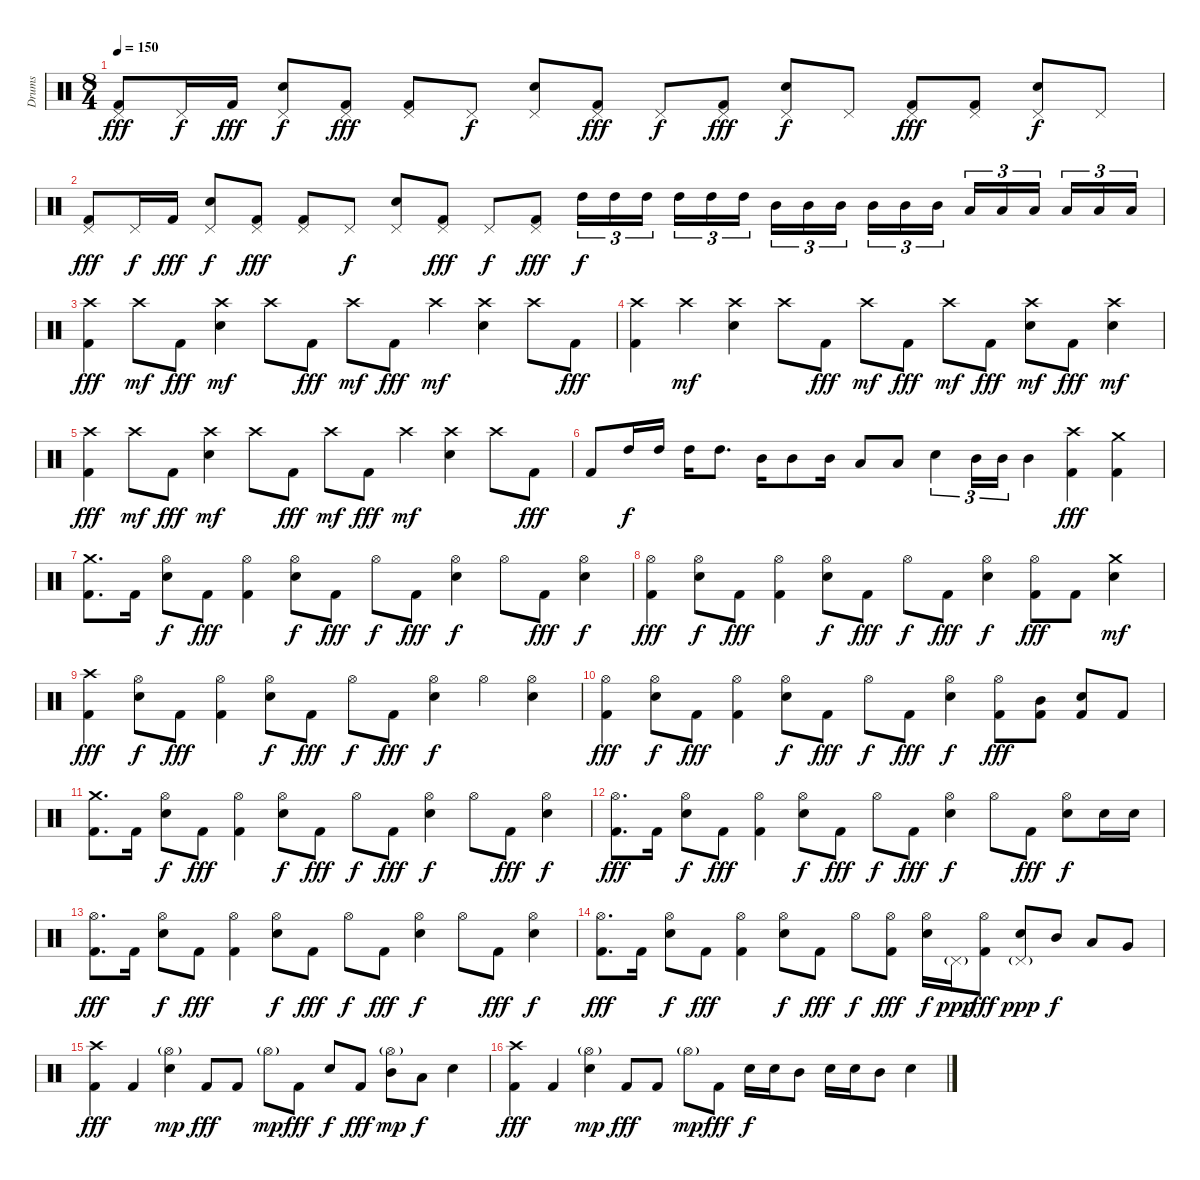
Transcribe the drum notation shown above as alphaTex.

\track ("Drums" "Drums") {instrument percussion}
\staff {score}
\articulation defaults
\ts (8 4)
\tempo 150
\clef neutral
\ks c
("Pedal Hi-Hat (hit)" "Kick (hit) 2").8{dy fff} "Pedal Hi-Hat (hit)".16{dy f} "Kick (hit) 2".16{dy fff} ("Pedal Hi-Hat (hit)" "Snare (hit) 2").8{dy f} ("Pedal Hi-Hat (hit)" "Kick (hit) 2").8{dy fff} ("Pedal Hi-Hat (hit)" "Kick (hit) 2").8 "Pedal Hi-Hat (hit)".8{dy f} ("Pedal Hi-Hat (hit)" "Snare (hit) 2").8 ("Pedal Hi-Hat (hit)" "Kick (hit) 2").8{dy fff} "Pedal Hi-Hat (hit)".8{dy f} ("Pedal Hi-Hat (hit)" "Kick (hit) 2").8{dy fff} ("Pedal Hi-Hat (hit)" "Snare (hit) 2").8{dy f} "Pedal Hi-Hat (hit)".8 ("Pedal Hi-Hat (hit)" "Kick (hit) 2").8{dy fff} ("Pedal Hi-Hat (hit)" "Kick (hit) 2").8 ("Pedal Hi-Hat (hit)" "Snare (hit) 2").8{dy f} "Pedal Hi-Hat (hit)".8 |
("Pedal Hi-Hat (hit)" "Kick (hit) 2").8{dy fff} "Pedal Hi-Hat (hit)".16{dy f} "Kick (hit) 2".16{dy fff} ("Pedal Hi-Hat (hit)" "Snare (hit) 2").8{dy f} ("Pedal Hi-Hat (hit)" "Kick (hit) 2").8{dy fff} ("Pedal Hi-Hat (hit)" "Kick (hit) 2").8 "Pedal Hi-Hat (hit)".8{dy f} ("Pedal Hi-Hat (hit)" "Snare (hit) 2").8 ("Pedal Hi-Hat (hit)" "Kick (hit) 2").8{dy fff} "Pedal Hi-Hat (hit)".8{dy f} ("Pedal Hi-Hat (hit)" "Kick (hit) 2").8{dy fff} "High Tom (hit)".16{tu (3 2) dy f} "High Tom (hit)".16{tu (3 2)} "High Tom (hit)".16{tu (3 2)} "High Tom (hit)".16{tu (3 2)} "High Tom (hit)".16{tu (3 2)} "High Tom (hit)".16{tu (3 2)} "Mid Tom (hit)".16{tu (3 2)} "Mid Tom (hit)".16{tu (3 2)} "Mid Tom (hit)".16{tu (3 2)} "Mid Tom (hit)".16{tu (3 2)} "Mid Tom (hit)".16{tu (3 2)} "Mid Tom (hit)".16{tu (3 2)} "Low Tom (hit)".16{tu (3 2)} "Low Tom (hit)".16{tu (3 2)} "Low Tom (hit)".16{tu (3 2)} "Low Tom (hit)".16{tu (3 2)} "Low Tom (hit)".16{tu (3 2)} "Low Tom (hit)".16{tu (3 2)} |
("Crash high (hit)" "Kick (hit) 2").4{dy fff} "Crash high (hit)".8{dy mf} "Kick (hit) 2".8{dy fff} ("Crash high (hit)" "Snare (hit) 2").4{dy mf} "Crash high (hit)".8 "Kick (hit) 2".8{dy fff} "Crash high (hit)".8{dy mf} "Kick (hit) 2".8{dy fff} "Crash high (hit)".4{dy mf} ("Crash high (hit)" "Snare (hit) 2").4 "Crash high (hit)".8 "Kick (hit) 2".8{dy fff} |
("Crash high (hit)" "Kick (hit) 2").4 "Crash high (hit)".4{dy mf} ("Crash high (hit)" "Snare (hit) 2").4 "Crash high (hit)".8 "Kick (hit) 2".8{dy fff} "Crash high (hit)".8{dy mf} "Kick (hit) 2".8{dy fff} "Crash high (hit)".8{dy mf} "Kick (hit) 2".8{dy fff} ("Crash high (hit)" "Snare (hit) 2").8{dy mf} "Kick (hit) 2".8{dy fff} ("Crash high (hit)" "Snare (hit) 2").4{dy mf} |
("Crash high (hit)" "Kick (hit) 2").4{dy fff} "Crash high (hit)".8{dy mf} "Kick (hit) 2".8{dy fff} ("Crash high (hit)" "Snare (hit) 2").4{dy mf} "Crash high (hit)".8 "Kick (hit) 2".8{dy fff} "Crash high (hit)".8{dy mf} "Kick (hit) 2".8{dy fff} "Crash high (hit)".4{dy mf} ("Crash high (hit)" "Snare (hit) 2").4 "Crash high (hit)".8 "Kick (hit) 2".8{dy fff} |
"Kick (hit) 2".8 "High Tom (hit)".16{dy f} "High Tom (hit)".16 "High Tom (hit)".16 "High Tom (hit)".8{d} "Mid Tom (hit)".16 "Mid Tom (hit)".8 "Mid Tom (hit)".16 "Low Tom (hit)".8 "Low Tom (hit)".8 "Snare (hit) 2".4{tu (3 2)} "Mid Tom (hit)".16{tu (3 2)} "Mid Tom (hit)".16{tu (3 2)} "Mid Tom (hit)".4 ("Crash high (hit)" "Kick (hit) 2").4{dy fff} ("Crash medium (hit)" "Kick (hit) 2").4 |
("Crash medium (hit)" "Kick (hit) 2").8{d} "Kick (hit) 2".16 ("Hi-Hat (open)" "Snare (hit) 2").8{dy f} "Kick (hit) 2".8{dy fff} ("Hi-Hat (open)" "Kick (hit) 2").4 ("Hi-Hat (open)" "Snare (hit) 2").8{dy f} "Kick (hit) 2".8{dy fff} "Hi-Hat (open)".8{dy f} "Kick (hit) 2".8{dy fff} ("Hi-Hat (open)" "Snare (hit) 2").4{dy f} "Hi-Hat (open)".8 "Kick (hit) 2".8{dy fff} ("Hi-Hat (open)" "Snare (hit) 2").4{dy f} |
("Hi-Hat (open)" "Kick (hit) 2").4{dy fff} ("Hi-Hat (open)" "Snare (hit) 2").8{dy f} "Kick (hit) 2".8{dy fff} ("Hi-Hat (open)" "Kick (hit) 2").4 ("Hi-Hat (open)" "Snare (hit) 2").8{dy f} "Kick (hit) 2".8{dy fff} "Hi-Hat (open)".8{dy f} "Kick (hit) 2".8{dy fff} ("Hi-Hat (open)" "Snare (hit) 2").4{dy f} ("Hi-Hat (open)" "Kick (hit) 2").8{dy fff} "Kick (hit) 2".8 ("Crash medium (hit)" "Snare (hit) 2").4{dy mf} |
("Crash high (hit)" "Kick (hit) 2").4{dy fff} ("Hi-Hat (open)" "Snare (hit) 2").8{dy f} "Kick (hit) 2".8{dy fff} ("Hi-Hat (open)" "Kick (hit) 2").4 ("Hi-Hat (open)" "Snare (hit) 2").8{dy f} "Kick (hit) 2".8{dy fff} "Hi-Hat (open)".8{dy f} "Kick (hit) 2".8{dy fff} ("Hi-Hat (open)" "Snare (hit) 2").4{dy f} "Hi-Hat (open)".4 ("Hi-Hat (open)" "Snare (hit) 2").4 |
("Hi-Hat (open)" "Kick (hit) 2").4{dy fff} ("Hi-Hat (open)" "Snare (hit) 2").8{dy f} "Kick (hit) 2".8{dy fff} ("Hi-Hat (open)" "Kick (hit) 2").4 ("Hi-Hat (open)" "Snare (hit) 2").8{dy f} "Kick (hit) 2".8{dy fff} "Hi-Hat (open)".8{dy f} "Kick (hit) 2".8{dy fff} ("Hi-Hat (open)" "Snare (hit) 2").4{dy f} ("Hi-Hat (open)" "Kick (hit) 2").8{dy fff} ("Mid Tom (hit)" "Kick (hit) 2").8 ("Snare (hit) 2" "Kick (hit) 2").8 "Kick (hit) 2".8 |
("Crash medium (hit)" "Kick (hit) 2").8{d} "Kick (hit) 2".16 ("Hi-Hat (open)" "Snare (hit) 2").8{dy f} "Kick (hit) 2".8{dy fff} ("Hi-Hat (open)" "Kick (hit) 2").4 ("Hi-Hat (open)" "Snare (hit) 2").8{dy f} "Kick (hit) 2".8{dy fff} "Hi-Hat (open)".8{dy f} "Kick (hit) 2".8{dy fff} ("Hi-Hat (open)" "Snare (hit) 2").4{dy f} "Hi-Hat (open)".8 "Kick (hit) 2".8{dy fff} ("Hi-Hat (open)" "Snare (hit) 2").4{dy f} |
("Hi-Hat (open)" "Kick (hit) 2").8{d dy fff} "Kick (hit) 2".16 ("Hi-Hat (open)" "Snare (hit) 2").8{dy f} "Kick (hit) 2".8{dy fff} ("Hi-Hat (open)" "Kick (hit) 2").4 ("Hi-Hat (open)" "Snare (hit) 2").8{dy f} "Kick (hit) 2".8{dy fff} "Hi-Hat (open)".8{dy f} "Kick (hit) 2".8{dy fff} ("Hi-Hat (open)" "Snare (hit) 2").4{dy f} "Hi-Hat (open)".8 "Kick (hit) 2".8{dy fff} ("Hi-Hat (open)" "Snare (hit) 2").8{dy f} "Snare (hit) 2".16 "Snare (hit) 2".16 |
("Hi-Hat (open)" "Kick (hit) 2").8{d dy fff} "Kick (hit) 2".16 ("Hi-Hat (open)" "Snare (hit) 2").8{dy f} "Kick (hit) 2".8{dy fff} ("Hi-Hat (open)" "Kick (hit) 2").4 ("Hi-Hat (open)" "Snare (hit) 2").8{dy f} "Kick (hit) 2".8{dy fff} "Hi-Hat (open)".8{dy f} "Kick (hit) 2".8{dy fff} ("Hi-Hat (open)" "Snare (hit) 2").4{dy f} "Hi-Hat (open)".8 "Kick (hit) 2".8{dy fff} ("Hi-Hat (open)" "Snare (hit) 2").4{dy f} |
("Hi-Hat (open)" "Kick (hit) 2").8{d dy fff} "Kick (hit) 2".16 ("Hi-Hat (open)" "Snare (hit) 2").8{dy f} "Kick (hit) 2".8{dy fff} ("Hi-Hat (open)" "Kick (hit) 2").4 ("Hi-Hat (open)" "Snare (hit) 2").8{dy f} "Kick (hit) 2".8{dy fff} "Hi-Hat (open)".8{dy f} ("Hi-Hat (open)" "Kick (hit) 2").8{dy fff} ("Hi-Hat (open)" "Snare (hit) 2").16{dy f} "Pedal Hi-Hat (hit)"{g}.16{dy ppp} ("Hi-Hat (open)" "Kick (hit) 2").8{dy fff} ("Pedal Hi-Hat (hit)"{g} "Snare (hit) 2").8{dy ppp} "Mid Tom (hit)".8{dy f} "Low Tom (hit)".8 "Very Low Tom (hit)".8 |
("Crash high (hit)" "Kick (hit) 2").4{dy fff} "Kick (hit) 2".4 ("Hi-Hat (open)"{g} "Snare (hit) 2").4{dy mp} "Kick (hit) 2".8{dy fff} "Kick (hit) 2".8 "Hi-Hat (open)"{g}.8{dy mp} "Kick (hit) 2".8{dy fff} "Snare (hit) 2".8{dy f} "Kick (hit) 2".8{dy fff} ("Hi-Hat (open)"{g} "Mid Tom (hit)").8{dy mp} "Low Tom (hit)".8{dy f} "Snare (hit) 2".4 |
("Crash high (hit)" "Kick (hit) 2").4{dy fff} "Kick (hit) 2".4 ("Hi-Hat (open)"{g} "Snare (hit) 2").4{dy mp} "Kick (hit) 2".8{dy fff} "Kick (hit) 2".8 "Hi-Hat (open)"{g}.8{dy mp} "Kick (hit) 2".8{dy fff} "Snare (hit) 2".16{dy f} "Snare (hit) 2".16 "Mid Tom (hit)".8 "Snare (hit) 2".16 "Snare (hit) 2".16 "Mid Tom (hit)".8 "Snare (hit) 2".4
